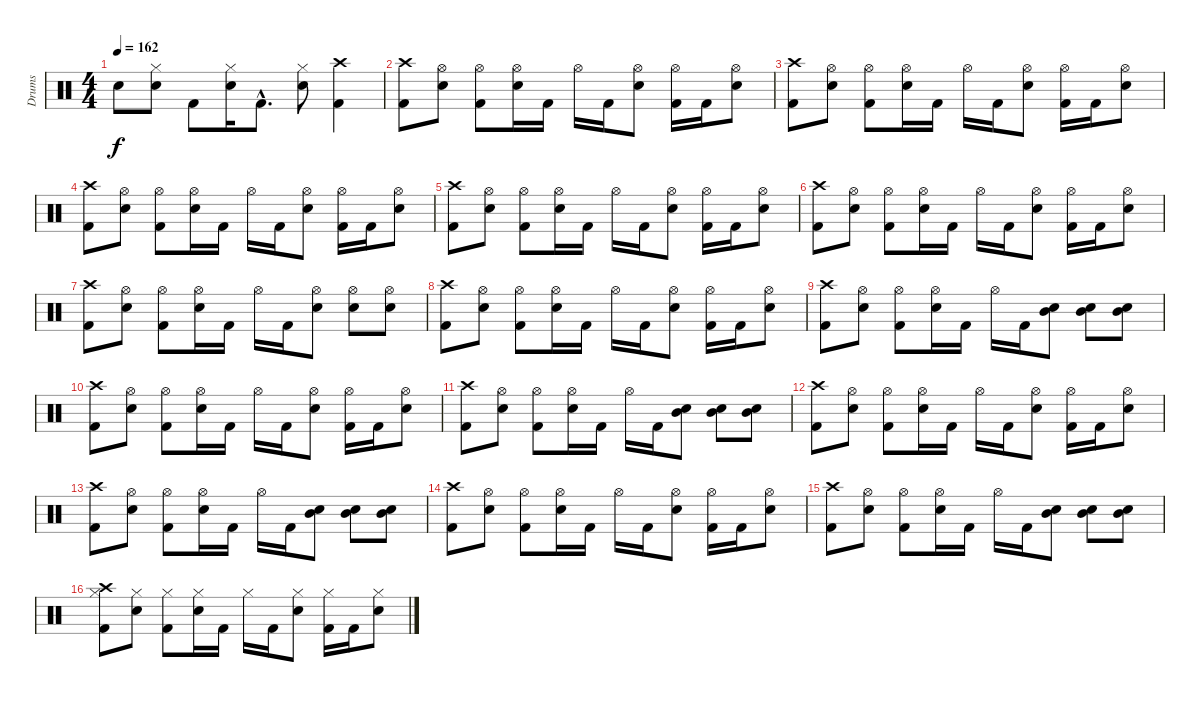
\track ("Drums" "Drums") {instrument percussion}
\staff {score}
\articulation defaults
\ts (4 4)
\tempo 162
\clef neutral
\ks c "Snare (hit)"{t}.8{dy f}
("Snare (hit) 2" "Hi-Hat (closed)").8 "Kick (hit) 2".8 ("Snare (hit) 2" "Hi-Hat (closed)").16 "Kick (hit) 2"{hac}.8{d} ("Snare (hit) 2" "Hi-Hat (closed)").8 ("Kick (hit) 2" "Crash high (hit)").4 |
("Kick (hit) 2" "Crash high (hit)").8 ("Snare (hit) 2" "Hi-Hat (open)").8 ("Kick (hit) 2" "Hi-Hat (open)").8 ("Snare (hit) 2" "Hi-Hat (open)").16 "Kick (hit) 2".16 "Hi-Hat (open)".16 "Kick (hit) 2".16 ("Snare (hit) 2" "Hi-Hat (open)").8 ("Kick (hit) 2" "Hi-Hat (open)").16 "Kick (hit) 2".16 ("Snare (hit) 2" "Hi-Hat (open)").8 |
("Kick (hit) 2" "Crash high (hit)").8 ("Snare (hit) 2" "Hi-Hat (open)").8 ("Kick (hit) 2" "Hi-Hat (open)").8 ("Snare (hit) 2" "Hi-Hat (open)").16 "Kick (hit) 2".16 "Hi-Hat (open)".16 "Kick (hit) 2".16 ("Snare (hit) 2" "Hi-Hat (open)").8 ("Kick (hit) 2" "Hi-Hat (open)").16 "Kick (hit) 2".16 ("Snare (hit) 2" "Hi-Hat (open)").8 |
("Kick (hit) 2" "Crash high (hit)").8 ("Snare (hit) 2" "Hi-Hat (open)").8 ("Kick (hit) 2" "Hi-Hat (open)").8 ("Snare (hit) 2" "Hi-Hat (open)").16 "Kick (hit) 2".16 "Hi-Hat (open)".16 "Kick (hit) 2".16 ("Snare (hit) 2" "Hi-Hat (open)").8 ("Kick (hit) 2" "Hi-Hat (open)").16 "Kick (hit) 2".16 ("Snare (hit) 2" "Hi-Hat (open)").8 |
("Kick (hit) 2" "Crash high (hit)").8 ("Snare (hit) 2" "Hi-Hat (open)").8 ("Kick (hit) 2" "Hi-Hat (open)").8 ("Snare (hit) 2" "Hi-Hat (open)").16 "Kick (hit) 2".16 "Hi-Hat (open)".16 "Kick (hit) 2".16 ("Snare (hit) 2" "Hi-Hat (open)").8 ("Kick (hit) 2" "Hi-Hat (open)").16 "Kick (hit) 2".16 ("Snare (hit) 2" "Hi-Hat (open)").8 |
("Kick (hit) 2" "Crash high (hit)").8 ("Snare (hit) 2" "Hi-Hat (open)").8 ("Kick (hit) 2" "Hi-Hat (open)").8 ("Snare (hit) 2" "Hi-Hat (open)").16 "Kick (hit) 2".16 "Hi-Hat (open)".16 "Kick (hit) 2".16 ("Snare (hit) 2" "Hi-Hat (open)").8 ("Kick (hit) 2" "Hi-Hat (open)").16 "Kick (hit) 2".16 ("Snare (hit) 2" "Hi-Hat (open)").8 |
("Kick (hit) 2" "Crash high (hit)").8 ("Snare (hit) 2" "Hi-Hat (open)").8 ("Kick (hit) 2" "Hi-Hat (open)").8 ("Snare (hit) 2" "Hi-Hat (open)").16 "Kick (hit) 2".16 "Hi-Hat (open)".16 "Kick (hit) 2".16 ("Snare (hit) 2" "Hi-Hat (open)").8 ("Snare (hit) 2" "Hi-Hat (open)").8 ("Snare (hit) 2" "Hi-Hat (open)").8 |
("Kick (hit) 2" "Crash high (hit)").8 ("Snare (hit) 2" "Hi-Hat (open)").8 ("Kick (hit) 2" "Hi-Hat (open)").8 ("Snare (hit) 2" "Hi-Hat (open)").16 "Kick (hit) 2".16 "Hi-Hat (open)".16 "Kick (hit) 2".16 ("Snare (hit) 2" "Hi-Hat (open)").8 ("Kick (hit) 2" "Hi-Hat (open)").16 "Kick (hit) 2".16 ("Snare (hit) 2" "Hi-Hat (open)").8 |
("Kick (hit) 2" "Crash high (hit)").8 ("Snare (hit) 2" "Hi-Hat (open)").8 ("Kick (hit) 2" "Hi-Hat (open)").8 ("Snare (hit) 2" "Hi-Hat (open)").16 "Kick (hit) 2".16 "Hi-Hat (open)".16 "Kick (hit) 2".16 ("Snare (hit) 2" "Mid Tom (hit)").8 ("Snare (hit) 2" "Mid Tom (hit)").8 ("Snare (hit) 2" "Mid Tom (hit)").8 |
("Kick (hit) 2" "Crash high (hit)").8 ("Snare (hit) 2" "Hi-Hat (open)").8 ("Kick (hit) 2" "Hi-Hat (open)").8 ("Snare (hit) 2" "Hi-Hat (open)").16 "Kick (hit) 2".16 "Hi-Hat (open)".16 "Kick (hit) 2".16 ("Snare (hit) 2" "Hi-Hat (open)").8 ("Kick (hit) 2" "Hi-Hat (open)").16 "Kick (hit) 2".16 ("Snare (hit) 2" "Hi-Hat (open)").8 |
("Kick (hit) 2" "Crash high (hit)").8 ("Snare (hit) 2" "Hi-Hat (open)").8 ("Kick (hit) 2" "Hi-Hat (open)").8 ("Snare (hit) 2" "Hi-Hat (open)").16 "Kick (hit) 2".16 "Hi-Hat (open)".16 "Kick (hit) 2".16 ("Snare (hit) 2" "Mid Tom (hit)").8 ("Snare (hit) 2" "Mid Tom (hit)").8 ("Snare (hit) 2" "Mid Tom (hit)").8 |
("Kick (hit) 2" "Crash high (hit)").8 ("Snare (hit) 2" "Hi-Hat (open)").8 ("Kick (hit) 2" "Hi-Hat (open)").8 ("Snare (hit) 2" "Hi-Hat (open)").16 "Kick (hit) 2".16 "Hi-Hat (open)".16 "Kick (hit) 2".16 ("Snare (hit) 2" "Hi-Hat (open)").8 ("Kick (hit) 2" "Hi-Hat (open)").16 "Kick (hit) 2".16 ("Snare (hit) 2" "Hi-Hat (open)").8 |
("Kick (hit) 2" "Crash high (hit)").8 ("Snare (hit) 2" "Hi-Hat (open)").8 ("Kick (hit) 2" "Hi-Hat (open)").8 ("Snare (hit) 2" "Hi-Hat (open)").16 "Kick (hit) 2".16 "Hi-Hat (open)".16 "Kick (hit) 2".16 ("Snare (hit) 2" "Mid Tom (hit)").8 ("Snare (hit) 2" "Mid Tom (hit)").8 ("Snare (hit) 2" "Mid Tom (hit)").8 |
("Kick (hit) 2" "Crash high (hit)").8 ("Snare (hit) 2" "Hi-Hat (open)").8 ("Kick (hit) 2" "Hi-Hat (open)").8 ("Snare (hit) 2" "Hi-Hat (open)").16 "Kick (hit) 2".16 "Hi-Hat (open)".16 "Kick (hit) 2".16 ("Snare (hit) 2" "Hi-Hat (open)").8 ("Kick (hit) 2" "Hi-Hat (open)").16 "Kick (hit) 2".16 ("Snare (hit) 2" "Hi-Hat (open)").8 |
("Kick (hit) 2" "Crash high (hit)").8 ("Snare (hit) 2" "Hi-Hat (open)").8 ("Kick (hit) 2" "Hi-Hat (open)").8 ("Snare (hit) 2" "Hi-Hat (open)").16 "Kick (hit) 2".16 "Hi-Hat (open)".16 "Kick (hit) 2".16 ("Snare (hit) 2" "Mid Tom (hit)").8 ("Snare (hit) 2" "Mid Tom (hit)").8 ("Snare (hit) 2" "Mid Tom (hit)").8 |
("Kick (hit) 2" "Hi-Hat (closed)" "Crash high (hit)").8 ("Snare (hit) 2" "Hi-Hat (closed)").8 ("Kick (hit) 2" "Hi-Hat (closed)").8 ("Snare (hit) 2" "Hi-Hat (closed)").16 "Kick (hit) 2".16 "Hi-Hat (closed)".16 "Kick (hit) 2".16 ("Snare (hit) 2" "Hi-Hat (closed)").8 ("Kick (hit) 2" "Hi-Hat (closed)").16 "Kick (hit) 2".16 ("Snare (hit) 2" "Hi-Hat (closed)").8
